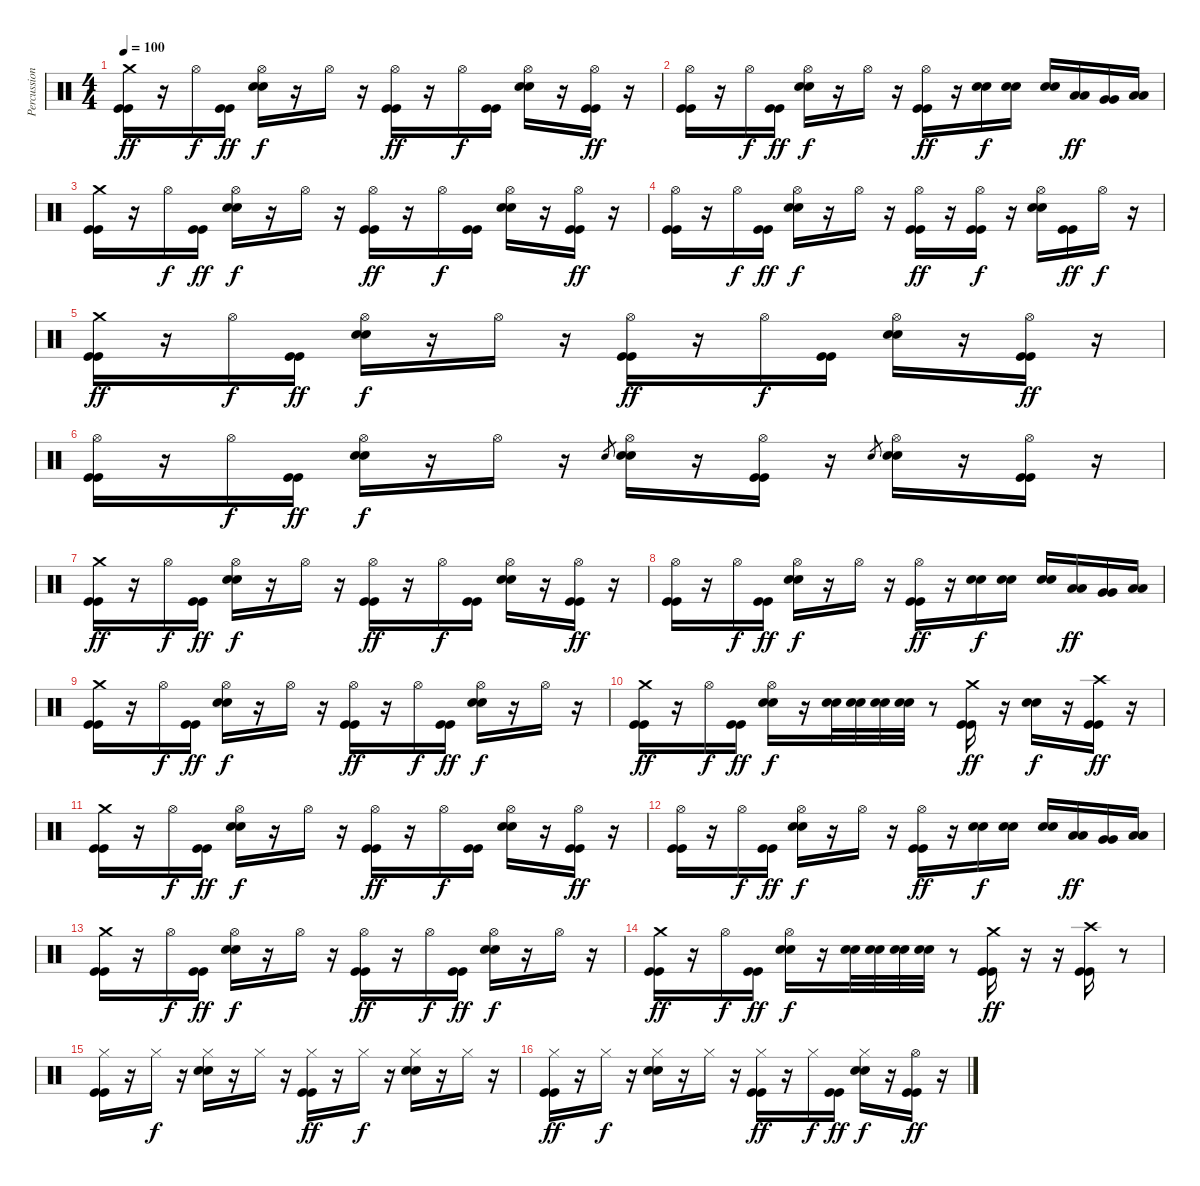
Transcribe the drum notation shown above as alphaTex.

\track ("Percussions" "Percussion") {instrument percussion}
\staff {score}
\articulation defaults
\ts (4 4)
\tempo 100
\clef neutral
\ks c
("Crash medium (hit)" "Kick (hit)" "Kick (hit)").16{dy ff} r.16 "Hi-Hat (open)".16{dy f} ("Kick (hit)" "Kick (hit)").16{dy ff} ("Hi-Hat (open)" "Electric Snare (hit)" "Electric Snare (hit)").16{dy f} r.16 "Hi-Hat (open)".16 r.16 ("Hi-Hat (open)" "Kick (hit)" "Kick (hit)").16{dy ff} r.16 "Hi-Hat (open)".16{dy f} ("Kick (hit)" "Kick (hit)").16 ("Hi-Hat (open)" "Electric Snare (hit)" "Electric Snare (hit)").16 r.16 ("Hi-Hat (open)" "Kick (hit)" "Kick (hit)").16{dy ff} r.16 |
("Hi-Hat (open)" "Kick (hit)" "Kick (hit)").16 r.16 "Hi-Hat (open)".16{dy f} ("Kick (hit)" "Kick (hit)").16{dy ff} ("Hi-Hat (open)" "Electric Snare (hit)" "Electric Snare (hit)").16{dy f} r.16 "Hi-Hat (open)".16 r.16 ("Hi-Hat (open)" "Kick (hit)" "Kick (hit)").16{dy ff} r.16 ("Electric Snare (hit)" "Electric Snare (hit)").16{dy f} ("Electric Snare (hit)" "Electric Snare (hit)").16 ("Electric Snare (hit)" "Electric Snare (hit)").16 ("Low Tom (hit)" "Low Tom (hit)").16{dy ff} ("Very Low Tom (hit)" "Very Low Tom (hit)").16 ("Low Floor Tom (hit)" "Low Floor Tom (hit)").16 |
("Crash medium (hit)" "Kick (hit)" "Kick (hit)").16 r.16 "Hi-Hat (open)".16{dy f} ("Kick (hit)" "Kick (hit)").16{dy ff} ("Hi-Hat (open)" "Electric Snare (hit)" "Electric Snare (hit)").16{dy f} r.16 "Hi-Hat (open)".16 r.16 ("Hi-Hat (open)" "Kick (hit)" "Kick (hit)").16{dy ff} r.16 "Hi-Hat (open)".16{dy f} ("Kick (hit)" "Kick (hit)").16 ("Hi-Hat (open)" "Electric Snare (hit)" "Electric Snare (hit)").16 r.16 ("Hi-Hat (open)" "Kick (hit)" "Kick (hit)").16{dy ff} r.16 |
("Hi-Hat (open)" "Kick (hit)" "Kick (hit)").16 r.16 "Hi-Hat (open)".16{dy f} ("Kick (hit)" "Kick (hit)").16{dy ff} ("Hi-Hat (open)" "Electric Snare (hit)" "Electric Snare (hit)").16{dy f} r.16 "Hi-Hat (open)".16 r.16 ("Hi-Hat (open)" "Kick (hit)" "Kick (hit)").16{dy ff} r.16 ("Hi-Hat (open)" "Kick (hit)" "Kick (hit)").16{dy f} r.16 ("Hi-Hat (open)" "Electric Snare (hit)" "Electric Snare (hit)").16 ("Kick (hit)" "Kick (hit)").16{dy ff} "Hi-Hat (open)".16{dy f} r.16 |
("Crash medium (hit)" "Kick (hit)" "Kick (hit)").16{dy ff} r.16 "Hi-Hat (open)".16{dy f} ("Kick (hit)" "Kick (hit)").16{dy ff} ("Hi-Hat (open)" "Electric Snare (hit)" "Electric Snare (hit)").16{dy f} r.16 "Hi-Hat (open)".16 r.16 ("Hi-Hat (open)" "Kick (hit)" "Kick (hit)").16{dy ff} r.16 "Hi-Hat (open)".16{dy f} ("Kick (hit)" "Kick (hit)").16 ("Hi-Hat (open)" "Electric Snare (hit)" "Electric Snare (hit)").16 r.16 ("Hi-Hat (open)" "Kick (hit)" "Kick (hit)").16{dy ff} r.16 |
("Hi-Hat (open)" "Kick (hit)" "Kick (hit)").16 r.16 "Hi-Hat (open)".16{dy f} ("Kick (hit)" "Kick (hit)").16{dy ff} ("Hi-Hat (open)" "Electric Snare (hit)" "Electric Snare (hit)").16{dy f} r.16 "Hi-Hat (open)".16 r.16 "Electric Snare (hit)".8{gr} ("Hi-Hat (open)" "Electric Snare (hit)" "Electric Snare (hit)").16 r.16 ("Hi-Hat (open)" "Kick (hit)" "Kick (hit)").16 r.16 "Electric Snare (hit)".8{gr} ("Hi-Hat (open)" "Electric Snare (hit)" "Electric Snare (hit)").16 r.16 ("Hi-Hat (open)" "Kick (hit)" "Kick (hit)").16 r.16 |
("Crash medium (hit)" "Kick (hit)" "Kick (hit)").16{dy ff} r.16 "Hi-Hat (open)".16{dy f} ("Kick (hit)" "Kick (hit)").16{dy ff} ("Hi-Hat (open)" "Electric Snare (hit)" "Electric Snare (hit)").16{dy f} r.16 "Hi-Hat (open)".16 r.16 ("Hi-Hat (open)" "Kick (hit)" "Kick (hit)").16{dy ff} r.16 "Hi-Hat (open)".16{dy f} ("Kick (hit)" "Kick (hit)").16 ("Hi-Hat (open)" "Electric Snare (hit)" "Electric Snare (hit)").16 r.16 ("Hi-Hat (open)" "Kick (hit)" "Kick (hit)").16{dy ff} r.16 |
("Hi-Hat (open)" "Kick (hit)" "Kick (hit)").16 r.16 "Hi-Hat (open)".16{dy f} ("Kick (hit)" "Kick (hit)").16{dy ff} ("Hi-Hat (open)" "Electric Snare (hit)" "Electric Snare (hit)").16{dy f} r.16 "Hi-Hat (open)".16 r.16 ("Hi-Hat (open)" "Kick (hit)" "Kick (hit)").16{dy ff} r.16 ("Electric Snare (hit)" "Electric Snare (hit)").16{dy f} ("Electric Snare (hit)" "Electric Snare (hit)").16 ("Electric Snare (hit)" "Electric Snare (hit)").16 ("Low Tom (hit)" "Low Tom (hit)").16{dy ff} ("Very Low Tom (hit)" "Very Low Tom (hit)").16 ("Low Floor Tom (hit)" "Low Floor Tom (hit)").16 |
("Crash medium (hit)" "Kick (hit)" "Kick (hit)").16 r.16 "Hi-Hat (open)".16{dy f} ("Kick (hit)" "Kick (hit)").16{dy ff} ("Hi-Hat (open)" "Electric Snare (hit)" "Electric Snare (hit)").16{dy f} r.16 "Hi-Hat (open)".16 r.16 ("Hi-Hat (open)" "Kick (hit)" "Kick (hit)").16{dy ff} r.16 "Hi-Hat (open)".16{dy f} ("Kick (hit)" "Kick (hit)").16{dy ff} ("Hi-Hat (open)" "Electric Snare (hit)" "Electric Snare (hit)").16{dy f} r.16 "Hi-Hat (open)".16 r.16 |
("Crash medium (hit)" "Kick (hit)" "Kick (hit)").16{dy ff} r.16 "Hi-Hat (open)".16{dy f} ("Kick (hit)" "Kick (hit)").16{dy ff} ("Hi-Hat (open)" "Electric Snare (hit)" "Electric Snare (hit)").16{dy f} r.16 ("Electric Snare (hit)" "Electric Snare (hit)").32 ("Electric Snare (hit)" "Electric Snare (hit)").32 ("Electric Snare (hit)" "Electric Snare (hit)").32 ("Electric Snare (hit)" "Electric Snare (hit)").32 r.8 ("Crash medium (hit)" "Kick (hit)" "Kick (hit)").16{dy ff} r.16 ("Electric Snare (hit)" "Electric Snare (hit)").16{dy f} r.16 ("Crash high (hit)" "Kick (hit)" "Kick (hit)").16{dy ff} r.16 |
("Crash medium (hit)" "Kick (hit)" "Kick (hit)").16 r.16 "Hi-Hat (open)".16{dy f} ("Kick (hit)" "Kick (hit)").16{dy ff} ("Hi-Hat (open)" "Electric Snare (hit)" "Electric Snare (hit)").16{dy f} r.16 "Hi-Hat (open)".16 r.16 ("Hi-Hat (open)" "Kick (hit)" "Kick (hit)").16{dy ff} r.16 "Hi-Hat (open)".16{dy f} ("Kick (hit)" "Kick (hit)").16 ("Hi-Hat (open)" "Electric Snare (hit)" "Electric Snare (hit)").16 r.16 ("Hi-Hat (open)" "Kick (hit)" "Kick (hit)").16{dy ff} r.16 |
("Hi-Hat (open)" "Kick (hit)" "Kick (hit)").16 r.16 "Hi-Hat (open)".16{dy f} ("Kick (hit)" "Kick (hit)").16{dy ff} ("Hi-Hat (open)" "Electric Snare (hit)" "Electric Snare (hit)").16{dy f} r.16 "Hi-Hat (open)".16 r.16 ("Hi-Hat (open)" "Kick (hit)" "Kick (hit)").16{dy ff} r.16 ("Electric Snare (hit)" "Electric Snare (hit)").16{dy f} ("Electric Snare (hit)" "Electric Snare (hit)").16 ("Electric Snare (hit)" "Electric Snare (hit)").16 ("Low Tom (hit)" "Low Tom (hit)").16{dy ff} ("Very Low Tom (hit)" "Very Low Tom (hit)").16 ("Low Floor Tom (hit)" "Low Floor Tom (hit)").16 |
("Crash medium (hit)" "Kick (hit)" "Kick (hit)").16 r.16 "Hi-Hat (open)".16{dy f} ("Kick (hit)" "Kick (hit)").16{dy ff} ("Hi-Hat (open)" "Electric Snare (hit)" "Electric Snare (hit)").16{dy f} r.16 "Hi-Hat (open)".16 r.16 ("Hi-Hat (open)" "Kick (hit)" "Kick (hit)").16{dy ff} r.16 "Hi-Hat (open)".16{dy f} ("Kick (hit)" "Kick (hit)").16{dy ff} ("Hi-Hat (open)" "Electric Snare (hit)" "Electric Snare (hit)").16{dy f} r.16 "Hi-Hat (open)".16 r.16 |
("Crash medium (hit)" "Kick (hit)" "Kick (hit)").16{dy ff} r.16 "Hi-Hat (open)".16{dy f} ("Kick (hit)" "Kick (hit)").16{dy ff} ("Hi-Hat (open)" "Electric Snare (hit)" "Electric Snare (hit)").16{dy f} r.16 ("Electric Snare (hit)" "Electric Snare (hit)").32 ("Electric Snare (hit)" "Electric Snare (hit)").32 ("Electric Snare (hit)" "Electric Snare (hit)").32 ("Electric Snare (hit)" "Electric Snare (hit)").32 r.8 ("Crash medium (hit)" "Kick (hit)" "Kick (hit)").16{dy ff} r.16 r.16 ("Crash high (hit)" "Kick (hit)" "Kick (hit)").16 r.8 |
("Hi-Hat (closed)" "Kick (hit)" "Kick (hit)").16 r.16 "Hi-Hat (closed)".16{dy f} r.16 ("Hi-Hat (closed)" "Electric Snare (hit)" "Electric Snare (hit)").16 r.16 "Hi-Hat (closed)".16 r.16 ("Hi-Hat (closed)" "Kick (hit)" "Kick (hit)").16{dy ff} r.16 "Hi-Hat (closed)".16{dy f} r.16 ("Hi-Hat (closed)" "Electric Snare (hit)" "Electric Snare (hit)").16 r.16 "Hi-Hat (closed)".16 r.16 |
("Hi-Hat (closed)" "Kick (hit)" "Kick (hit)").16{dy ff} r.16 "Hi-Hat (closed)".16{dy f} r.16 ("Hi-Hat (closed)" "Electric Snare (hit)" "Electric Snare (hit)").16 r.16 "Hi-Hat (closed)".16 r.16 ("Hi-Hat (closed)" "Kick (hit)" "Kick (hit)").16{dy ff} r.16 "Hi-Hat (closed)".16{dy f} ("Kick (hit)" "Kick (hit)").16{dy ff} ("Hi-Hat (closed)" "Electric Snare (hit)" "Electric Snare (hit)").16{dy f} r.16 ("Hi-Hat (open)" "Kick (hit)" "Kick (hit)").16{dy ff} r.16
